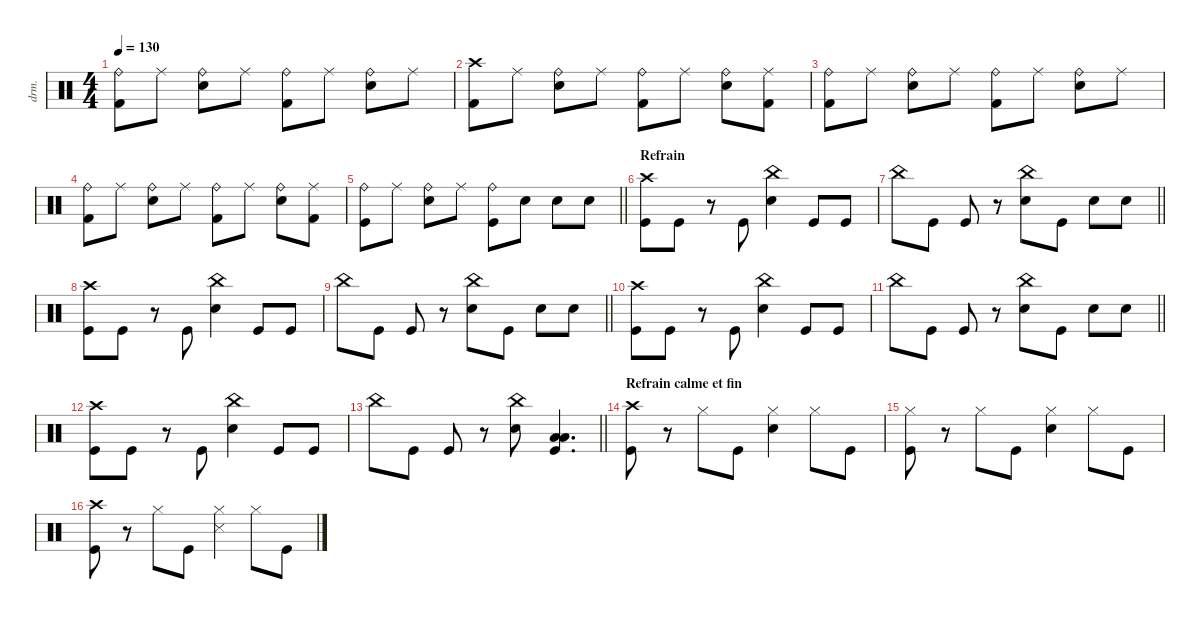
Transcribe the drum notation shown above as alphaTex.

\defaultSystemsLayout 4
\hideDynamics
\bracketExtendMode nobrackets
\track ("Manouche" "drm.") {instrument percussion}
\staff {score}
\articulation defaults
\ts (4 4)
\tempo 130
\clef neutral
\ks c
("Ride (bell)" "Kick (hit) 2").8{dy f beam Down} "Ride (middle)".8{dy mf beam Down} ("Ride (bell)" "Snare (hit) 2").8{dy f beam Down} "Ride (middle)".8{dy mf beam Down} ("Ride (bell)" "Kick (hit) 2").8{dy f beam Down} "Ride (middle)".8{dy mf beam Down} ("Ride (bell)" "Snare (hit) 2").8{dy f beam Down} "Ride (middle)".8{dy mf beam Down} |
("Crash high (hit)" "Kick (hit) 2").8{dy f beam Down} "Ride (middle)".8{dy mf beam Down} ("Ride (bell)" "Snare (hit) 2").8{dy f beam Down} "Ride (middle)".8{dy mf beam Down} ("Ride (bell)" "Kick (hit) 2").8{dy f beam Down} "Ride (middle)".8{dy mf beam Down} ("Ride (bell)" "Snare (hit) 2").8{dy f beam Down} ("Ride (middle)" "Kick (hit) 2").8{dy mf beam Down} |
("Ride (bell)" "Kick (hit) 2").8{dy f beam Down} "Ride (middle)".8{dy mf beam Down} ("Ride (bell)" "Snare (hit) 2").8{dy f beam Down} "Ride (middle)".8{dy mf beam Down} ("Ride (bell)" "Kick (hit) 2").8{dy f beam Down} "Ride (middle)".8{dy mf beam Down} ("Ride (bell)" "Snare (hit) 2").8{dy f beam Down} "Ride (middle)".8{dy mf beam Down} |
("Ride (bell)" "Kick (hit) 2").8{dy f beam Down} "Ride (middle)".8{dy mf beam Down} ("Ride (bell)" "Snare (hit) 2").8{dy f beam Down} "Ride (middle)".8{dy mf beam Down} ("Ride (bell)" "Kick (hit) 2").8{dy f beam Down} "Ride (middle)".8{dy mf beam Down} ("Ride (bell)" "Snare (hit) 2").8{dy f beam Down} ("Ride (middle)" "Kick (hit) 2").8{dy mf beam Down} |
\barLineRight lightlight
("Ride (bell)" "Kick (hit)").8{dy f beam Down} "Ride (middle)".8{dy mf beam Down} ("Ride (bell)" "Snare (hit) 2").8{dy f beam Down} "Ride (middle)".8{dy mf beam Down} ("Ride (bell)" "Kick (hit)").8{dy f beam Down} "Snare (hit) 2".8{beam Down} "Snare (hit) 2".8{beam Down} "Snare (hit) 2".8{beam Down} |
\section ("" "Refrain")
("Crash high (hit)" "Kick (hit)").8{beam Down} "Kick (hit)".8{beam Down} r.8{beam Down} "Kick (hit)".8{beam Up} ("China (hit)" "Snare (hit) 2").4{beam Down} "Kick (hit)".8{beam Up} "Kick (hit)".8{beam Up} |
\barLineRight lightlight "China (hit)".8{beam Down} "Kick (hit)".8{beam Down} "Kick (hit)".8{beam Up}
r.8{beam Up} ("China (hit)" "Snare (hit) 2").8{beam Down} "Kick (hit)".8{beam Down} "Snare (hit) 2".8{beam Down} "Snare (hit) 2".8{beam Down} |
("Crash high (hit)" "Kick (hit)").8{beam Down} "Kick (hit)".8{beam Down} r.8{beam Down} "Kick (hit)".8{beam Up} ("China (hit)" "Snare (hit) 2").4{beam Down} "Kick (hit)".8{beam Up} "Kick (hit)".8{beam Up} |
\barLineRight lightlight "China (hit)".8{beam Down} "Kick (hit)".8{beam Down} "Kick (hit)".8{beam Up}
r.8{beam Up} ("China (hit)" "Snare (hit) 2").8{beam Down} "Kick (hit)".8{beam Down} "Snare (hit) 2".8{beam Down} "Snare (hit) 2".8{beam Down} |
("Crash high (hit)" "Kick (hit)").8{beam Down} "Kick (hit)".8{beam Down} r.8{beam Down} "Kick (hit)".8{beam Up} ("China (hit)" "Snare (hit) 2").4{beam Down} "Kick (hit)".8{beam Up} "Kick (hit)".8{beam Up} |
\barLineRight lightlight "China (hit)".8{beam Down} "Kick (hit)".8{beam Down} "Kick (hit)".8{beam Up}
r.8{beam Up} ("China (hit)" "Snare (hit) 2").8{beam Down} "Kick (hit)".8{beam Down} "Snare (hit) 2".8{beam Down} "Snare (hit) 2".8{beam Down} |
("Crash high (hit)" "Kick (hit)").8{beam Down} "Kick (hit)".8{beam Down} r.8{beam Down} "Kick (hit)".8{beam Up} ("China (hit)" "Snare (hit) 2").4{beam Down} "Kick (hit)".8{beam Up} "Kick (hit)".8{beam Up} |
\barLineRight lightlight "China (hit)".8{beam Down} "Kick (hit)".8{beam Down} "Kick (hit)".8{beam Up}
r.8{beam Up} ("China (hit)" "Snare (hit) 2").8{beam Down} ("Low Tom (hit)" "Kick (hit)" "Low Floor Tom (hit)").4{d dy ff beam Up} |
\section ("" "Refrain calme et fin")
("Crash high (hit)" "Kick (hit)").8{dy f beam Down} r.8{beam Down} "Hi-Hat (closed)".8{beam Down} "Kick (hit)".8{beam Down} ("Hi-Hat (closed)" "Snare (hit) 2").4{beam Down} "Hi-Hat (closed)".8{beam Down} "Kick (hit)".8{beam Down} |
("Hi-Hat (closed)" "Kick (hit)").8{beam Down} r.8{beam Down} "Hi-Hat (closed)".8{beam Down} "Kick (hit)".8{beam Down} ("Hi-Hat (closed)" "Snare (hit) 2").4{beam Down} "Hi-Hat (closed)".8{beam Down} "Kick (hit)".8{beam Down} |
("Crash high (hit)" "Kick (hit)").8{beam Down} r.8{beam Down} "Hi-Hat (closed)".8{beam Down} "Kick (hit)".8{beam Down} ("Hi-Hat (closed)" "Snare (side stick) 3").4{beam Down} "Hi-Hat (closed)".8{beam Down} "Kick (hit)".8{beam Down}
